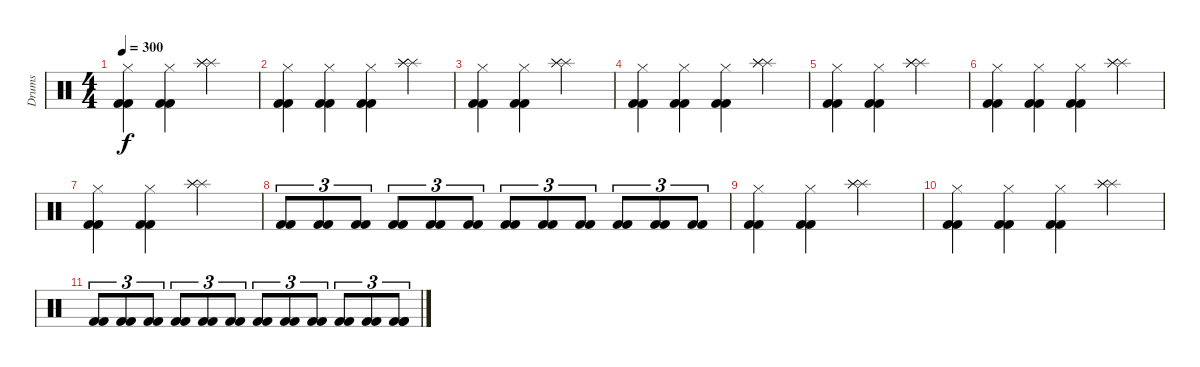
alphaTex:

\track ("Drums" "Drums") {instrument percussion}
\staff {score}
\articulation defaults
\ts (4 4)
\tempo 300
\clef neutral
\ks c
("Hi-Hat (closed)" "Kick (hit) 2" "Kick (hit) 2").4{dy f} ("Hi-Hat (closed)" "Kick (hit) 2" "Kick (hit) 2").4 ("Splash (hit)" "Splash (hit)" "Splash (hit)").2 |
("Hi-Hat (closed)" "Kick (hit) 2" "Kick (hit) 2").4 ("Hi-Hat (closed)" "Kick (hit) 2" "Kick (hit) 2").4 ("Hi-Hat (closed)" "Kick (hit) 2" "Kick (hit) 2").4 ("Splash (hit)" "Splash (hit)" "Splash (hit)").4 |
("Hi-Hat (closed)" "Kick (hit) 2" "Kick (hit) 2").4 ("Hi-Hat (closed)" "Kick (hit) 2" "Kick (hit) 2").4 ("Splash (hit)" "Splash (hit)" "Splash (hit)").2 |
("Hi-Hat (closed)" "Kick (hit) 2" "Kick (hit) 2").4 ("Hi-Hat (closed)" "Kick (hit) 2" "Kick (hit) 2").4 ("Hi-Hat (closed)" "Kick (hit) 2" "Kick (hit) 2").4 ("Splash (hit)" "Splash (hit)" "Splash (hit)").4 |
("Hi-Hat (closed)" "Kick (hit) 2" "Kick (hit) 2").4 ("Hi-Hat (closed)" "Kick (hit) 2" "Kick (hit) 2").4 ("Splash (hit)" "Splash (hit)" "Splash (hit)").2 |
("Hi-Hat (closed)" "Kick (hit) 2" "Kick (hit) 2").4 ("Hi-Hat (closed)" "Kick (hit) 2" "Kick (hit) 2").4 ("Hi-Hat (closed)" "Kick (hit) 2" "Kick (hit) 2").4 ("Splash (hit)" "Splash (hit)" "Splash (hit)").4 |
("Hi-Hat (closed)" "Kick (hit) 2" "Kick (hit) 2").4 ("Hi-Hat (closed)" "Kick (hit) 2" "Kick (hit) 2").4 ("Splash (hit)" "Splash (hit)" "Splash (hit)").2 |
("Kick (hit) 2" "Kick (hit) 2").8{tu (3 2)} ("Kick (hit) 2" "Kick (hit) 2").8{tu (3 2)} ("Kick (hit) 2" "Kick (hit) 2").8{tu (3 2)} ("Kick (hit) 2" "Kick (hit) 2").8{tu (3 2)} ("Kick (hit) 2" "Kick (hit) 2").8{tu (3 2)} ("Kick (hit) 2" "Kick (hit) 2").8{tu (3 2)} ("Kick (hit) 2" "Kick (hit) 2").8{tu (3 2)} ("Kick (hit) 2" "Kick (hit) 2").8{tu (3 2)} ("Kick (hit) 2" "Kick (hit) 2").8{tu (3 2)} ("Kick (hit) 2" "Kick (hit) 2").8{tu (3 2)} ("Kick (hit) 2" "Kick (hit) 2").8{tu (3 2)} ("Kick (hit) 2" "Kick (hit) 2").8{tu (3 2)} |
("Hi-Hat (closed)" "Kick (hit) 2" "Kick (hit) 2").4 ("Hi-Hat (closed)" "Kick (hit) 2" "Kick (hit) 2").4 ("Splash (hit)" "Splash (hit)" "Splash (hit)").2 |
("Hi-Hat (closed)" "Kick (hit) 2" "Kick (hit) 2").4 ("Hi-Hat (closed)" "Kick (hit) 2" "Kick (hit) 2").4 ("Hi-Hat (closed)" "Kick (hit) 2" "Kick (hit) 2").4 ("Splash (hit)" "Splash (hit)" "Splash (hit)").4 |
("Kick (hit) 2" "Kick (hit) 2").8{tu (3 2)} ("Kick (hit) 2" "Kick (hit) 2").8{tu (3 2)} ("Kick (hit) 2" "Kick (hit) 2").8{tu (3 2)} ("Kick (hit) 2" "Kick (hit) 2").8{tu (3 2)} ("Kick (hit) 2" "Kick (hit) 2").8{tu (3 2)} ("Kick (hit) 2" "Kick (hit) 2").8{tu (3 2)} ("Kick (hit) 2" "Kick (hit) 2").8{tu (3 2)} ("Kick (hit) 2" "Kick (hit) 2").8{tu (3 2)} ("Kick (hit) 2" "Kick (hit) 2").8{tu (3 2)} ("Kick (hit) 2" "Kick (hit) 2").8{tu (3 2)} ("Kick (hit) 2" "Kick (hit) 2").8{tu (3 2)} ("Kick (hit) 2" "Kick (hit) 2" "Kick (hit) 2").8{tu (3 2)}
